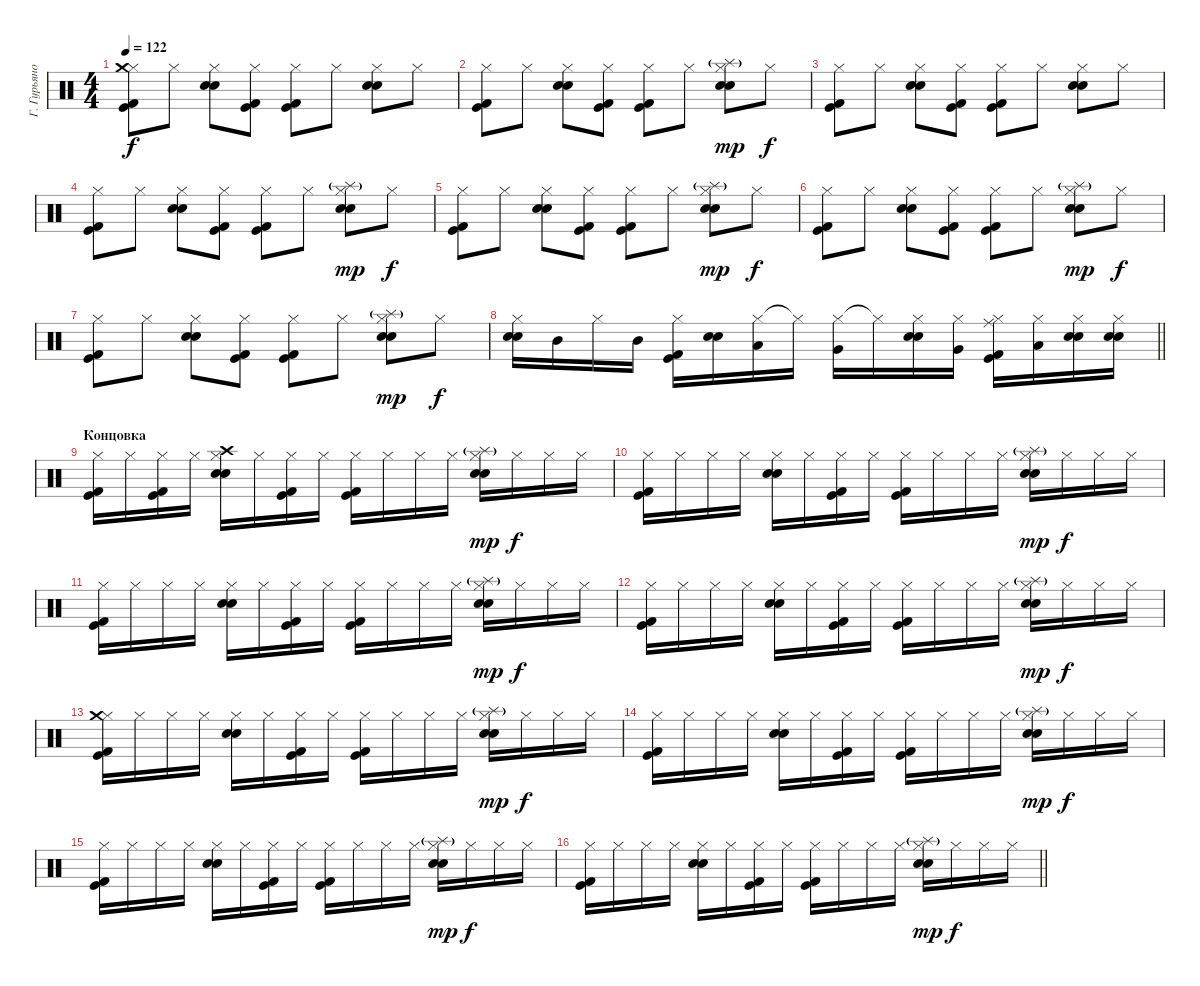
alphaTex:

\track ("Г. Гурьянов" "Г. Гурьяно") {instrument percussion}
\staff
\articulation defaults
\ts (4 4)
\tempo 122
\clef neutral
\ks c
("Hi-Hat (closed)" "Crash medium (hit)" "Kick (hit)" "Kick (hit) 2").8{dy f} "Hi-Hat (closed)".8 ("Hi-Hat (closed)" "Electric Snare (hit)" "Snare (hit) 2").8 ("Hi-Hat (closed)" "Kick (hit)" "Kick (hit) 2").8 ("Hi-Hat (closed)" "Kick (hit)" "Kick (hit) 2").8 "Hi-Hat (closed)".8 ("Hi-Hat (closed)" "Electric Snare (hit)" "Snare (hit) 2").8 "Hi-Hat (closed)".8 |
("Hi-Hat (closed)" "Kick (hit)" "Kick (hit) 2").8 "Hi-Hat (closed)".8 ("Hi-Hat (closed)" "Electric Snare (hit)" "Snare (hit) 2").8 ("Hi-Hat (closed)" "Kick (hit)" "Kick (hit) 2").8 ("Hi-Hat (closed)" "Kick (hit)" "Kick (hit) 2").8 "Hi-Hat (closed)".8 ("Hi-Hat (closed)" "Electric Snare (hit)" "Snare (hit) 2" "Splash (hit)"{g}).8{dy mp} "Hi-Hat (closed)".8{dy f} |
("Hi-Hat (closed)" "Kick (hit)" "Kick (hit) 2").8 "Hi-Hat (closed)".8 ("Hi-Hat (closed)" "Electric Snare (hit)" "Snare (hit) 2").8 ("Hi-Hat (closed)" "Kick (hit)" "Kick (hit) 2").8 ("Hi-Hat (closed)" "Kick (hit)" "Kick (hit) 2").8 "Hi-Hat (closed)".8 ("Hi-Hat (closed)" "Electric Snare (hit)" "Snare (hit) 2").8 "Hi-Hat (closed)".8 |
("Hi-Hat (closed)" "Kick (hit)" "Kick (hit) 2").8 "Hi-Hat (closed)".8 ("Hi-Hat (closed)" "Electric Snare (hit)" "Snare (hit) 2").8 ("Hi-Hat (closed)" "Kick (hit)" "Kick (hit) 2").8 ("Hi-Hat (closed)" "Kick (hit)" "Kick (hit) 2").8 "Hi-Hat (closed)".8 ("Hi-Hat (closed)" "Electric Snare (hit)" "Snare (hit) 2" "Splash (hit)"{g}).8{dy mp} "Hi-Hat (closed)".8{dy f} |
("Hi-Hat (closed)" "Kick (hit)" "Kick (hit) 2").8 "Hi-Hat (closed)".8 ("Hi-Hat (closed)" "Electric Snare (hit)" "Snare (hit) 2").8 ("Hi-Hat (closed)" "Kick (hit)" "Kick (hit) 2").8 ("Hi-Hat (closed)" "Kick (hit)" "Kick (hit) 2").8 "Hi-Hat (closed)".8 ("Hi-Hat (closed)" "Electric Snare (hit)" "Snare (hit) 2" "Splash (hit)"{g}).8{dy mp} "Hi-Hat (closed)".8{dy f} |
("Hi-Hat (closed)" "Kick (hit)" "Kick (hit) 2").8 "Hi-Hat (closed)".8 ("Hi-Hat (closed)" "Electric Snare (hit)" "Snare (hit) 2").8 ("Hi-Hat (closed)" "Kick (hit)" "Kick (hit) 2").8 ("Hi-Hat (closed)" "Kick (hit)" "Kick (hit) 2").8 "Hi-Hat (closed)".8 ("Hi-Hat (closed)" "Electric Snare (hit)" "Snare (hit) 2" "Splash (hit)"{g}).8{dy mp} "Hi-Hat (closed)".8{dy f} |
("Hi-Hat (closed)" "Kick (hit)" "Kick (hit) 2").8 "Hi-Hat (closed)".8 ("Hi-Hat (closed)" "Electric Snare (hit)" "Snare (hit) 2").8 ("Hi-Hat (closed)" "Kick (hit)" "Kick (hit) 2").8 ("Hi-Hat (closed)" "Kick (hit)" "Kick (hit) 2").8 "Hi-Hat (closed)".8 ("Hi-Hat (closed)" "Electric Snare (hit)" "Snare (hit) 2" "Splash (hit)"{g}).8{dy mp} "Hi-Hat (closed)".8{dy f} |
\barLineRight lightlight
("Hi-Hat (closed)" "Electric Snare (hit)" "Snare (hit) 2").16 "Mid Tom (hit)".16 "Hi-Hat (closed)".16 "Mid Tom (hit)".16 ("Hi-Hat (closed)" "Kick (hit)" "Kick (hit) 2").16 ("Electric Snare (hit)" "Snare (hit) 2").16 ("Hi-Hat (closed)" "Low Tom (hit)").16 "Hi-Hat (closed)"{t}.16 ("Hi-Hat (closed)" "Very Low Tom (hit)").16 "Hi-Hat (closed)"{t}.16 ("Hi-Hat (closed)" "Electric Snare (hit)" "Snare (hit) 2").16 ("Hi-Hat (closed)" "Very Low Tom (hit)").16 ("Hi-Hat (closed)" "Ride (middle)" "Kick (hit)" "Kick (hit) 2").16 ("Hi-Hat (closed)" "Low Floor Tom (hit)").16 ("Hi-Hat (closed)" "Electric Snare (hit)" "Snare (hit) 2").16 ("Hi-Hat (closed)" "Electric Snare (hit)" "Snare (hit) 2").16 |
\section ("" "Концовка")
("Hi-Hat (closed)" "Kick (hit)" "Kick (hit) 2").16 "Hi-Hat (closed)".16 ("Hi-Hat (closed)" "Kick (hit)" "Kick (hit) 2").16 "Hi-Hat (closed)".16 ("Hi-Hat (closed)" "Electric Snare (hit)" "Snare (hit) 2" "Crash high (hit)").16 "Hi-Hat (closed)".16 ("Hi-Hat (closed)" "Kick (hit)" "Kick (hit) 2").16 "Hi-Hat (closed)".16 ("Hi-Hat (closed)" "Kick (hit)" "Kick (hit) 2").16 "Hi-Hat (closed)".16 "Hi-Hat (closed)".16 "Hi-Hat (closed)".16 ("Hi-Hat (closed)" "Electric Snare (hit)" "Snare (hit) 2" "Splash (hit)"{g}).16{dy mp} "Hi-Hat (closed)".16{dy f} "Hi-Hat (closed)".16 "Hi-Hat (closed)".16 |
("Hi-Hat (closed)" "Kick (hit)" "Kick (hit) 2").16 "Hi-Hat (closed)".16 "Hi-Hat (closed)".16 "Hi-Hat (closed)".16 ("Hi-Hat (closed)" "Electric Snare (hit)" "Snare (hit) 2").16 "Hi-Hat (closed)".16 ("Hi-Hat (closed)" "Kick (hit)" "Kick (hit) 2").16 "Hi-Hat (closed)".16 ("Hi-Hat (closed)" "Kick (hit)" "Kick (hit) 2").16 "Hi-Hat (closed)".16 "Hi-Hat (closed)".16 "Hi-Hat (closed)".16 ("Hi-Hat (closed)" "Electric Snare (hit)" "Snare (hit) 2" "Splash (hit)"{g}).16{dy mp} "Hi-Hat (closed)".16{dy f} "Hi-Hat (closed)".16 "Hi-Hat (closed)".16 |
("Hi-Hat (closed)" "Kick (hit)" "Kick (hit) 2").16 "Hi-Hat (closed)".16 "Hi-Hat (closed)".16 "Hi-Hat (closed)".16 ("Hi-Hat (closed)" "Electric Snare (hit)" "Snare (hit) 2").16 "Hi-Hat (closed)".16 ("Hi-Hat (closed)" "Kick (hit)" "Kick (hit) 2").16 "Hi-Hat (closed)".16 ("Hi-Hat (closed)" "Kick (hit)" "Kick (hit) 2").16 "Hi-Hat (closed)".16 "Hi-Hat (closed)".16 "Hi-Hat (closed)".16 ("Hi-Hat (closed)" "Electric Snare (hit)" "Snare (hit) 2" "Splash (hit)"{g}).16{dy mp} "Hi-Hat (closed)".16{dy f} "Hi-Hat (closed)".16 "Hi-Hat (closed)".16 |
("Hi-Hat (closed)" "Kick (hit)" "Kick (hit) 2").16 "Hi-Hat (closed)".16 "Hi-Hat (closed)".16 "Hi-Hat (closed)".16 ("Hi-Hat (closed)" "Electric Snare (hit)" "Snare (hit) 2").16 "Hi-Hat (closed)".16 ("Hi-Hat (closed)" "Kick (hit)" "Kick (hit) 2").16 "Hi-Hat (closed)".16 ("Hi-Hat (closed)" "Kick (hit)" "Kick (hit) 2").16 "Hi-Hat (closed)".16 "Hi-Hat (closed)".16 "Hi-Hat (closed)".16 ("Hi-Hat (closed)" "Electric Snare (hit)" "Snare (hit) 2" "Splash (hit)"{g}).16{dy mp} "Hi-Hat (closed)".16{dy f} "Hi-Hat (closed)".16 "Hi-Hat (closed)".16 |
("Hi-Hat (closed)" "Crash medium (hit)" "Kick (hit)" "Kick (hit) 2").16 "Hi-Hat (closed)".16 "Hi-Hat (closed)".16 "Hi-Hat (closed)".16 ("Hi-Hat (closed)" "Electric Snare (hit)" "Snare (hit) 2").16 "Hi-Hat (closed)".16 ("Hi-Hat (closed)" "Kick (hit)" "Kick (hit) 2").16 "Hi-Hat (closed)".16 ("Hi-Hat (closed)" "Kick (hit)" "Kick (hit) 2").16 "Hi-Hat (closed)".16 "Hi-Hat (closed)".16 "Hi-Hat (closed)".16 ("Hi-Hat (closed)" "Electric Snare (hit)" "Snare (hit) 2" "Splash (hit)"{g}).16{dy mp} "Hi-Hat (closed)".16{dy f} "Hi-Hat (closed)".16 "Hi-Hat (closed)".16 |
("Hi-Hat (closed)" "Kick (hit)" "Kick (hit) 2").16 "Hi-Hat (closed)".16 "Hi-Hat (closed)".16 "Hi-Hat (closed)".16 ("Hi-Hat (closed)" "Electric Snare (hit)" "Snare (hit) 2").16 "Hi-Hat (closed)".16 ("Hi-Hat (closed)" "Kick (hit)" "Kick (hit) 2").16 "Hi-Hat (closed)".16 ("Hi-Hat (closed)" "Kick (hit)" "Kick (hit) 2").16 "Hi-Hat (closed)".16 "Hi-Hat (closed)".16 "Hi-Hat (closed)".16 ("Hi-Hat (closed)" "Electric Snare (hit)" "Snare (hit) 2" "Splash (hit)"{g}).16{dy mp} "Hi-Hat (closed)".16{dy f} "Hi-Hat (closed)".16 "Hi-Hat (closed)".16 |
("Hi-Hat (closed)" "Kick (hit)" "Kick (hit) 2").16 "Hi-Hat (closed)".16 "Hi-Hat (closed)".16 "Hi-Hat (closed)".16 ("Hi-Hat (closed)" "Electric Snare (hit)" "Snare (hit) 2").16 "Hi-Hat (closed)".16 ("Hi-Hat (closed)" "Kick (hit)" "Kick (hit) 2").16 "Hi-Hat (closed)".16 ("Hi-Hat (closed)" "Kick (hit)" "Kick (hit) 2").16 "Hi-Hat (closed)".16 "Hi-Hat (closed)".16 "Hi-Hat (closed)".16 ("Hi-Hat (closed)" "Electric Snare (hit)" "Snare (hit) 2" "Splash (hit)"{g}).16{dy mp} "Hi-Hat (closed)".16{dy f} "Hi-Hat (closed)".16 "Hi-Hat (closed)".16 |
\barLineRight lightlight
("Hi-Hat (closed)" "Kick (hit)" "Kick (hit) 2").16 "Hi-Hat (closed)".16 "Hi-Hat (closed)".16 "Hi-Hat (closed)".16 ("Hi-Hat (closed)" "Electric Snare (hit)" "Snare (hit) 2").16 "Hi-Hat (closed)".16 ("Hi-Hat (closed)" "Kick (hit)" "Kick (hit) 2").16 "Hi-Hat (closed)".16 ("Hi-Hat (closed)" "Kick (hit)" "Kick (hit) 2").16 "Hi-Hat (closed)".16 "Hi-Hat (closed)".16 "Hi-Hat (closed)".16 ("Hi-Hat (closed)" "Electric Snare (hit)" "Snare (hit) 2" "Splash (hit)"{g}).16{dy mp} "Hi-Hat (closed)".16{dy f} "Hi-Hat (closed)".16 "Hi-Hat (closed)".16
